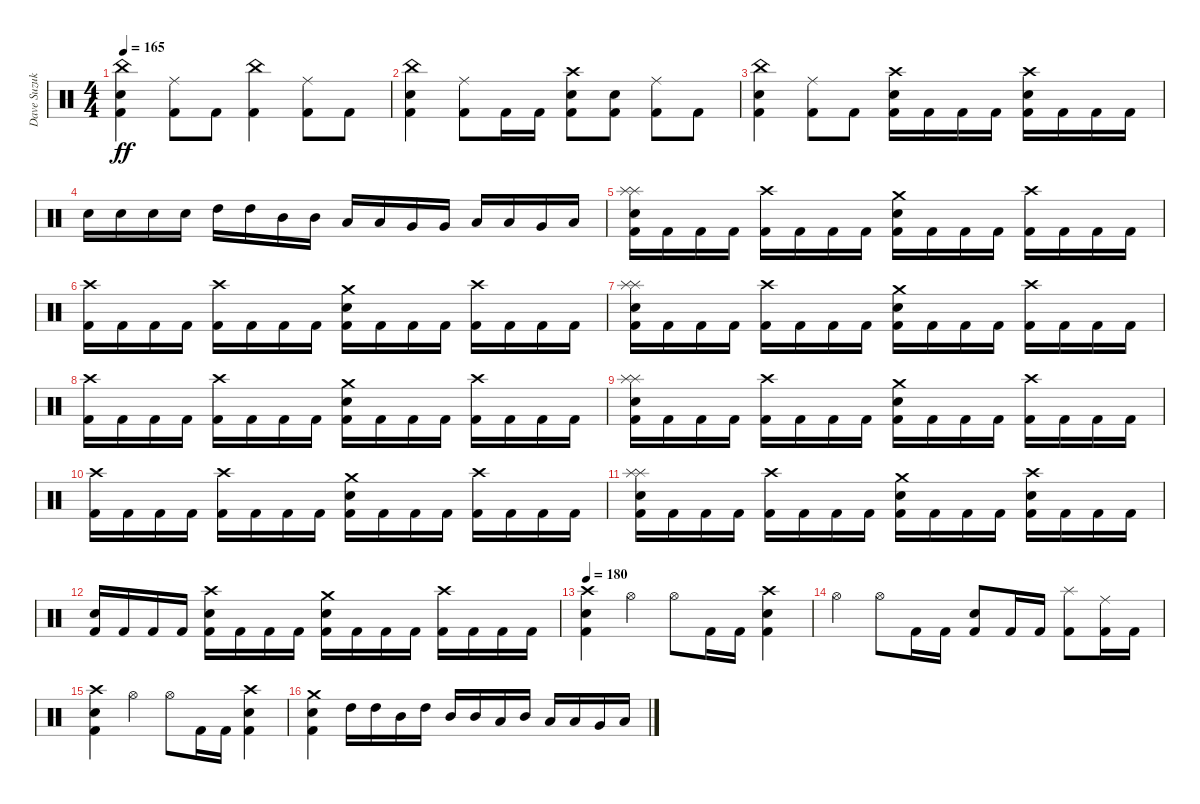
\track ("Dave Suzuki - Drums" "Dave Suzuk") {instrument percussion}
\staff {score}
\articulation defaults
\ts (4 4)
\tempo 165
\clef neutral
\ks c
("China (hit)" "Electric Snare (hit)" "Kick (hit) 2").4{dy ff} ("Ride (middle)" "Kick (hit) 2").8 "Kick (hit) 2".8 ("China (hit)" "Kick (hit) 2").4 ("Ride (middle)" "Kick (hit) 2").8 "Kick (hit) 2".8 |
("China (hit)" "Electric Snare (hit)" "Kick (hit) 2").4 ("Ride (middle)" "Kick (hit) 2").8 "Kick (hit) 2".16 "Kick (hit) 2".16 ("Crash high (hit)" "Electric Snare (hit)" "Kick (hit) 2").8 ("Electric Snare (hit)" "Kick (hit) 2").8 ("Ride (middle)" "Kick (hit) 2").8 "Kick (hit) 2".8 |
("China (hit)" "Electric Snare (hit)" "Kick (hit) 2").4 ("Ride (middle)" "Kick (hit) 2").8 "Kick (hit) 2".8 ("Crash high (hit)" "Electric Snare (hit)" "Kick (hit) 2").16 "Kick (hit) 2".16 "Kick (hit) 2".16 "Kick (hit) 2".16 ("Crash high (hit)" "Electric Snare (hit)" "Kick (hit) 2").16 "Kick (hit) 2".16 "Kick (hit) 2".16 "Kick (hit) 2".16 |
"Electric Snare (hit)".16 "Electric Snare (hit)".16 "Electric Snare (hit)".16 "Electric Snare (hit)".16 "High Tom (hit)".16 "High Tom (hit)".16 "Mid Tom (hit)".16 "Mid Tom (hit)".16 "Low Tom (hit)".16 "Low Tom (hit)".16 "Very Low Tom (hit)".16 "Very Low Tom (hit)".16 "Low Floor Tom (hit)".16 "Low Floor Tom (hit)".16 "Very Low Tom (hit)".16 "Low Floor Tom (hit)".16 |
("Splash (hit)" "Splash (hit)" "Electric Snare (hit)" "Kick (hit) 2").16 "Kick (hit) 2".16 "Kick (hit) 2".16 "Kick (hit) 2".16 ("Crash high (hit)" "Kick (hit) 2").16 "Kick (hit) 2".16 "Kick (hit) 2".16 "Kick (hit) 2".16 ("Crash medium (hit)" "Electric Snare (hit)" "Kick (hit) 2").16 "Kick (hit) 2".16 "Kick (hit) 2".16 "Kick (hit) 2".16 ("Crash high (hit)" "Kick (hit) 2").16 "Kick (hit) 2".16 "Kick (hit) 2".16 "Kick (hit) 2".16 |
("Crash high (hit)" "Kick (hit) 2").16 "Kick (hit) 2".16 "Kick (hit) 2".16 "Kick (hit) 2".16 ("Crash high (hit)" "Kick (hit) 2").16 "Kick (hit) 2".16 "Kick (hit) 2".16 "Kick (hit) 2".16 ("Crash medium (hit)" "Electric Snare (hit)" "Kick (hit) 2").16 "Kick (hit) 2".16 "Kick (hit) 2".16 "Kick (hit) 2".16 ("Crash high (hit)" "Kick (hit) 2").16 "Kick (hit) 2".16 "Kick (hit) 2".16 "Kick (hit) 2".16 |
("Splash (hit)" "Splash (hit)" "Electric Snare (hit)" "Kick (hit) 2").16 "Kick (hit) 2".16 "Kick (hit) 2".16 "Kick (hit) 2".16 ("Crash high (hit)" "Kick (hit) 2").16 "Kick (hit) 2".16 "Kick (hit) 2".16 "Kick (hit) 2".16 ("Crash medium (hit)" "Electric Snare (hit)" "Kick (hit) 2").16 "Kick (hit) 2".16 "Kick (hit) 2".16 "Kick (hit) 2".16 ("Crash high (hit)" "Kick (hit) 2").16 "Kick (hit) 2".16 "Kick (hit) 2".16 "Kick (hit) 2".16 |
("Crash high (hit)" "Kick (hit) 2").16 "Kick (hit) 2".16 "Kick (hit) 2".16 "Kick (hit) 2".16 ("Crash high (hit)" "Kick (hit) 2").16 "Kick (hit) 2".16 "Kick (hit) 2".16 "Kick (hit) 2".16 ("Crash medium (hit)" "Electric Snare (hit)" "Kick (hit) 2").16 "Kick (hit) 2".16 "Kick (hit) 2".16 "Kick (hit) 2".16 ("Crash high (hit)" "Kick (hit) 2").16 "Kick (hit) 2".16 "Kick (hit) 2".16 "Kick (hit) 2".16 |
("Splash (hit)" "Splash (hit)" "Electric Snare (hit)" "Kick (hit) 2").16 "Kick (hit) 2".16 "Kick (hit) 2".16 "Kick (hit) 2".16 ("Crash high (hit)" "Kick (hit) 2").16 "Kick (hit) 2".16 "Kick (hit) 2".16 "Kick (hit) 2".16 ("Crash medium (hit)" "Electric Snare (hit)" "Kick (hit) 2").16 "Kick (hit) 2".16 "Kick (hit) 2".16 "Kick (hit) 2".16 ("Crash high (hit)" "Kick (hit) 2").16 "Kick (hit) 2".16 "Kick (hit) 2".16 "Kick (hit) 2".16 |
("Crash high (hit)" "Kick (hit) 2").16 "Kick (hit) 2".16 "Kick (hit) 2".16 "Kick (hit) 2".16 ("Crash high (hit)" "Kick (hit) 2").16 "Kick (hit) 2".16 "Kick (hit) 2".16 "Kick (hit) 2".16 ("Crash medium (hit)" "Electric Snare (hit)" "Kick (hit) 2").16 "Kick (hit) 2".16 "Kick (hit) 2".16 "Kick (hit) 2".16 ("Crash high (hit)" "Kick (hit) 2").16 "Kick (hit) 2".16 "Kick (hit) 2".16 "Kick (hit) 2".16 |
("Splash (hit)" "Splash (hit)" "Electric Snare (hit)" "Kick (hit) 2").16 "Kick (hit) 2".16 "Kick (hit) 2".16 "Kick (hit) 2".16 ("Crash high (hit)" "Kick (hit) 2").16 "Kick (hit) 2".16 "Kick (hit) 2".16 "Kick (hit) 2".16 ("Crash medium (hit)" "Electric Snare (hit)" "Kick (hit) 2").16 "Kick (hit) 2".16 "Kick (hit) 2".16 "Kick (hit) 2".16 ("Crash high (hit)" "Electric Snare (hit)" "Kick (hit) 2").16 "Kick (hit) 2".16 "Kick (hit) 2".16 "Kick (hit) 2".16 |
("Electric Snare (hit)" "Kick (hit) 2").16 "Kick (hit) 2".16 "Kick (hit) 2".16 "Kick (hit) 2".16 ("Crash high (hit)" "Electric Snare (hit)" "Kick (hit) 2").16 "Kick (hit) 2".16 "Kick (hit) 2".16 "Kick (hit) 2".16 ("Crash medium (hit)" "Electric Snare (hit)" "Kick (hit) 2").16 "Kick (hit) 2".16 "Kick (hit) 2".16 "Kick (hit) 2".16 ("Crash high (hit)" "Kick (hit) 2").16 "Kick (hit) 2".16 "Kick (hit) 2".16 "Kick (hit) 2".16 |
\tempo 180
("Crash high (hit)" "Electric Snare (hit)" "Kick (hit) 2").4 "Hi-Hat (open)".4 "Hi-Hat (open)".8 "Kick (hit) 2".16 "Kick (hit) 2".16 ("Crash high (hit)" "Electric Snare (hit)" "Kick (hit) 2").4 |
"Hi-Hat (open)".4 "Hi-Hat (open)".8 "Kick (hit) 2".16 "Kick (hit) 2".16 ("Electric Snare (hit)" "Kick (hit) 2").8 "Kick (hit) 2".16 "Kick (hit) 2".16 ("Splash (hit)" "Kick (hit) 2").8 ("Ride (middle)" "Kick (hit) 2").16 "Kick (hit) 2".16 |
("Crash high (hit)" "Electric Snare (hit)" "Kick (hit) 2").4 "Hi-Hat (open)".4 "Hi-Hat (open)".8 "Kick (hit) 2".16 "Kick (hit) 2".16 ("Crash high (hit)" "Electric Snare (hit)" "Kick (hit) 2").4 |
("Crash medium (hit)" "Electric Snare (hit)" "Kick (hit) 2").4 "High Tom (hit)".16 "High Tom (hit)".16 "Mid Tom (hit)".16 "High Tom (hit)".16 "Mid Tom (hit)".16 "Mid Tom (hit)".16 "Low Tom (hit)".16 "Mid Tom (hit)".16 "Low Tom (hit)".16 "Low Tom (hit)".16 "Very Low Tom (hit)".16 "Low Floor Tom (hit)".16
